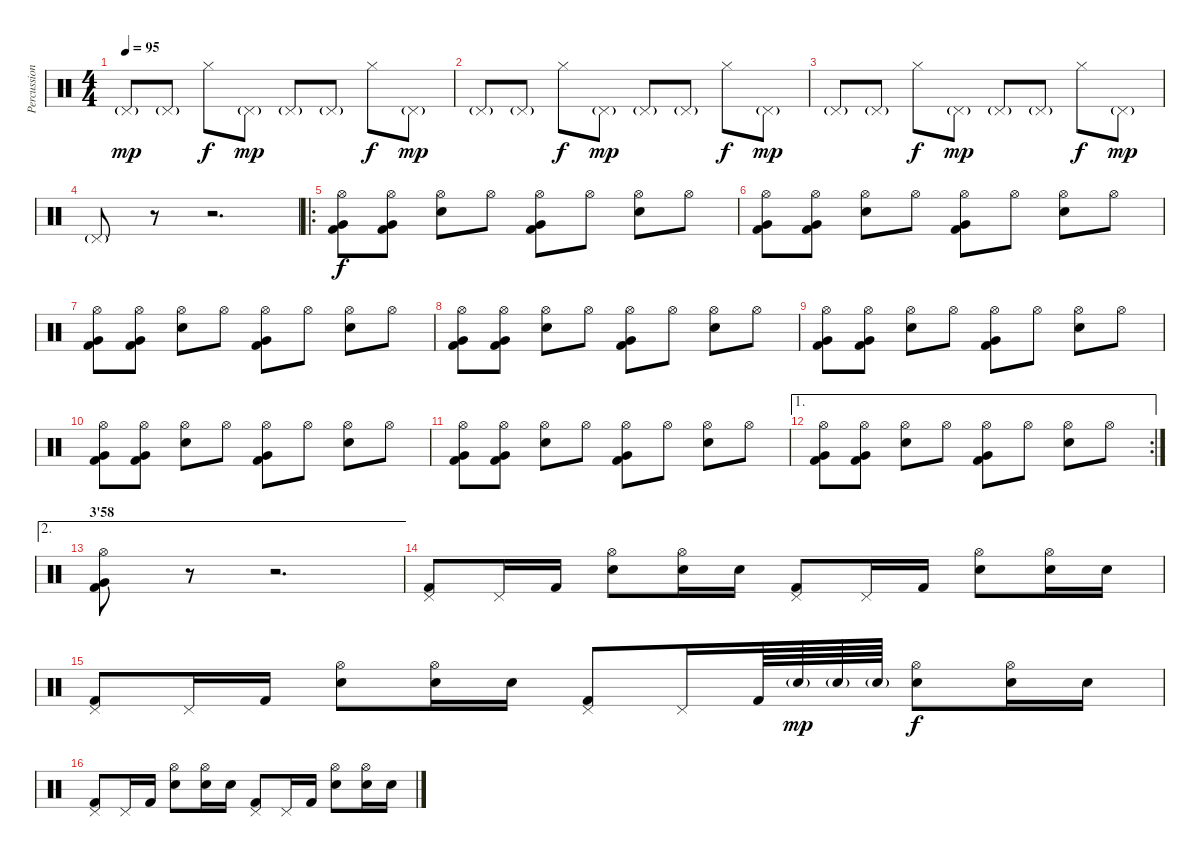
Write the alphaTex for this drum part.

\track ("Percussions" "Percussion") {instrument percussion}
\staff {score}
\articulation defaults
\ts (4 4)
\tempo 95
\clef neutral
\ks c "Pedal Hi-Hat (hit)"{g}.8{dy mp} "Pedal Hi-Hat (hit)"{g}.8 "Hi-Hat (closed)".8{dy f} "Pedal Hi-Hat (hit)"{g}.8{dy mp} "Pedal Hi-Hat (hit)"{g}.8 "Pedal Hi-Hat (hit)"{g}.8 "Hi-Hat (closed)".8{dy f} "Pedal Hi-Hat (hit)"{g}.8{dy mp}
|
"Pedal Hi-Hat (hit)"{g}.8 "Pedal Hi-Hat (hit)"{g}.8 "Hi-Hat (closed)".8{dy f} "Pedal Hi-Hat (hit)"{g}.8{dy mp} "Pedal Hi-Hat (hit)"{g}.8 "Pedal Hi-Hat (hit)"{g}.8 "Hi-Hat (closed)".8{dy f} "Pedal Hi-Hat (hit)"{g}.8{dy mp} |
"Pedal Hi-Hat (hit)"{g}.8 "Pedal Hi-Hat (hit)"{g}.8 "Hi-Hat (closed)".8{dy f} "Pedal Hi-Hat (hit)"{g}.8{dy mp} "Pedal Hi-Hat (hit)"{g}.8 "Pedal Hi-Hat (hit)"{g}.8 "Hi-Hat (closed)".8{dy f} "Pedal Hi-Hat (hit)"{g}.8{dy mp} |
"Pedal Hi-Hat (hit)"{g}.8 r.8 r.2{d} |
\ro
("Hi-Hat (open)" "Very Low Tom (hit)" "Kick (hit) 2").8{dy f} ("Hi-Hat (open)" "Very Low Tom (hit)" "Kick (hit) 2").8 ("Hi-Hat (open)" "Electric Snare (hit)").8 "Hi-Hat (open)".8 ("Hi-Hat (open)" "Very Low Tom (hit)" "Kick (hit) 2").8 "Hi-Hat (open)".8 ("Hi-Hat (open)" "Electric Snare (hit)").8 "Hi-Hat (open)".8 |
("Hi-Hat (open)" "Very Low Tom (hit)" "Kick (hit) 2").8 ("Hi-Hat (open)" "Very Low Tom (hit)" "Kick (hit) 2").8 ("Hi-Hat (open)" "Electric Snare (hit)").8 "Hi-Hat (open)".8 ("Hi-Hat (open)" "Very Low Tom (hit)" "Kick (hit) 2").8 "Hi-Hat (open)".8 ("Hi-Hat (open)" "Electric Snare (hit)").8 "Hi-Hat (open)".8 |
("Hi-Hat (open)" "Very Low Tom (hit)" "Kick (hit) 2").8 ("Hi-Hat (open)" "Very Low Tom (hit)" "Kick (hit) 2").8 ("Hi-Hat (open)" "Electric Snare (hit)").8 "Hi-Hat (open)".8 ("Hi-Hat (open)" "Very Low Tom (hit)" "Kick (hit) 2").8 "Hi-Hat (open)".8 ("Hi-Hat (open)" "Electric Snare (hit)").8 "Hi-Hat (open)".8 |
("Hi-Hat (open)" "Very Low Tom (hit)" "Kick (hit) 2").8 ("Hi-Hat (open)" "Very Low Tom (hit)" "Kick (hit) 2").8 ("Hi-Hat (open)" "Electric Snare (hit)").8 "Hi-Hat (open)".8 ("Hi-Hat (open)" "Very Low Tom (hit)" "Kick (hit) 2").8 "Hi-Hat (open)".8 ("Hi-Hat (open)" "Electric Snare (hit)").8 "Hi-Hat (open)".8 |
("Hi-Hat (open)" "Very Low Tom (hit)" "Kick (hit) 2").8 ("Hi-Hat (open)" "Very Low Tom (hit)" "Kick (hit) 2").8 ("Hi-Hat (open)" "Electric Snare (hit)").8 "Hi-Hat (open)".8 ("Hi-Hat (open)" "Very Low Tom (hit)" "Kick (hit) 2").8 "Hi-Hat (open)".8 ("Hi-Hat (open)" "Electric Snare (hit)").8 "Hi-Hat (open)".8 |
("Hi-Hat (open)" "Very Low Tom (hit)" "Kick (hit) 2").8 ("Hi-Hat (open)" "Very Low Tom (hit)" "Kick (hit) 2").8 ("Hi-Hat (open)" "Electric Snare (hit)").8 "Hi-Hat (open)".8 ("Hi-Hat (open)" "Very Low Tom (hit)" "Kick (hit) 2").8 "Hi-Hat (open)".8 ("Hi-Hat (open)" "Electric Snare (hit)").8 "Hi-Hat (open)".8 |
("Hi-Hat (open)" "Very Low Tom (hit)" "Kick (hit) 2").8 ("Hi-Hat (open)" "Very Low Tom (hit)" "Kick (hit) 2").8 ("Hi-Hat (open)" "Electric Snare (hit)").8 "Hi-Hat (open)".8 ("Hi-Hat (open)" "Very Low Tom (hit)" "Kick (hit) 2").8 "Hi-Hat (open)".8 ("Hi-Hat (open)" "Electric Snare (hit)").8 "Hi-Hat (open)".8 |
\ae 1
\rc 2
("Hi-Hat (open)" "Very Low Tom (hit)" "Kick (hit) 2").8 ("Hi-Hat (open)" "Very Low Tom (hit)" "Kick (hit) 2").8 ("Hi-Hat (open)" "Electric Snare (hit)").8 "Hi-Hat (open)".8 ("Hi-Hat (open)" "Very Low Tom (hit)" "Kick (hit) 2").8 "Hi-Hat (open)".8 ("Hi-Hat (open)" "Electric Snare (hit)").8 "Hi-Hat (open)".8 |
\ae 2
\section ("" "3'58")
("Hi-Hat (open)" "Very Low Tom (hit)" "Kick (hit) 2").8 r.8 r.2{d} |
("Pedal Hi-Hat (hit)" "Kick (hit) 2").8 "Pedal Hi-Hat (hit)".16 "Kick (hit) 2".16 ("Hi-Hat (open)" "Electric Snare (hit)").8 ("Hi-Hat (open)" "Electric Snare (hit)").16 "Electric Snare (hit)".16 ("Pedal Hi-Hat (hit)" "Kick (hit) 2").8 "Pedal Hi-Hat (hit)".16 "Kick (hit) 2".16 ("Hi-Hat (open)" "Electric Snare (hit)").8 ("Hi-Hat (open)" "Electric Snare (hit)").16 "Electric Snare (hit)".16 |
("Pedal Hi-Hat (hit)" "Kick (hit) 2").8 "Pedal Hi-Hat (hit)".16 "Kick (hit) 2".16 ("Hi-Hat (open)" "Electric Snare (hit)").8 ("Hi-Hat (open)" "Electric Snare (hit)").16 "Electric Snare (hit)".16 ("Pedal Hi-Hat (hit)" "Kick (hit) 2").8 "Pedal Hi-Hat (hit)".16 "Kick (hit) 2".64 "Electric Snare (hit)"{g}.64{dy mp} "Electric Snare (hit)"{g}.64 "Electric Snare (hit)"{g}.64 ("Hi-Hat (open)" "Electric Snare (hit)").8{dy f} ("Hi-Hat (open)" "Electric Snare (hit)").16 "Electric Snare (hit)".16 |
("Pedal Hi-Hat (hit)" "Kick (hit) 2").8 "Pedal Hi-Hat (hit)".16 "Kick (hit) 2".16 ("Hi-Hat (open)" "Electric Snare (hit)").8 ("Hi-Hat (open)" "Electric Snare (hit)").16 "Electric Snare (hit)".16 ("Pedal Hi-Hat (hit)" "Kick (hit) 2").8 "Pedal Hi-Hat (hit)".16 "Kick (hit) 2".16 ("Hi-Hat (open)" "Electric Snare (hit)").8 ("Hi-Hat (open)" "Electric Snare (hit)").16 "Electric Snare (hit)".16
